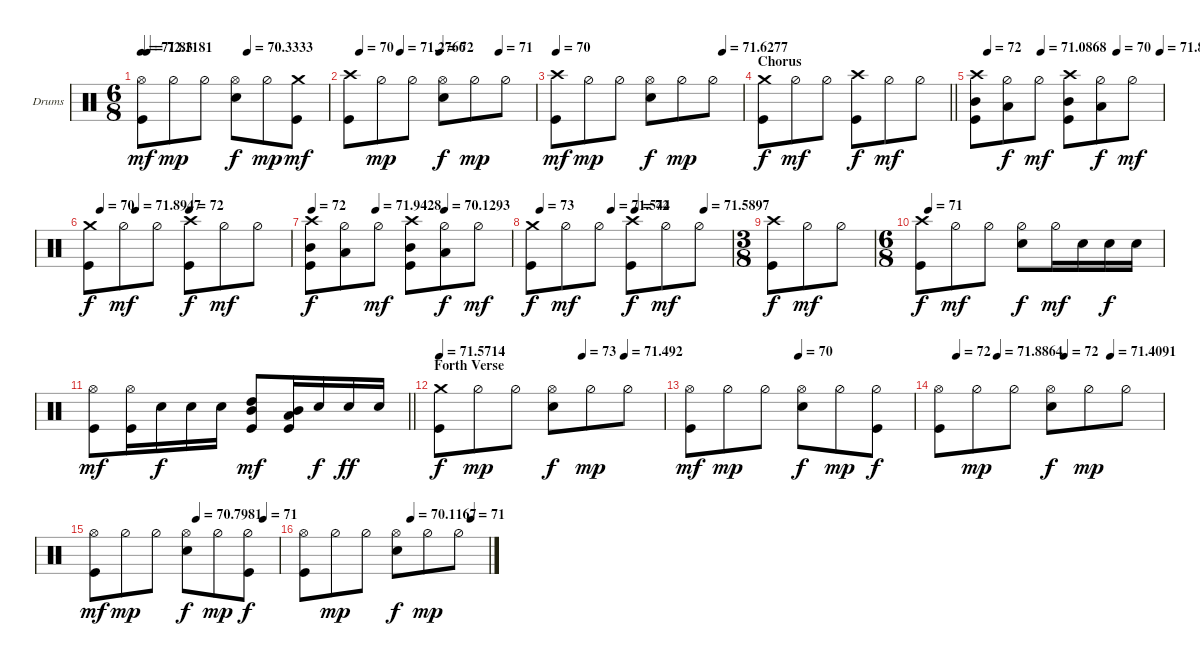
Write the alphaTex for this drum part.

\bracketExtendMode groupsimilarinstruments
\firstSystemTrackNameOrientation horizontal
\otherSystemsTrackNameOrientation horizontal
\track ("Drums" "Drums") {instrument percussion}
\staff {score}
\articulation defaults
\ts (6 8)
\tempo
71.83
\tempo (72.1181 0.03125)
\tempo (70.3333 0.56875)
\accidentals auto
\clef neutral
\ottava regular
\simile none
\ks c
("Hi-Hat (open)" "Kick (hit)").8{dy mf} "Hi-Hat (half)".8{dy mp} "Hi-Hat (half)".8 ("Hi-Hat (open)" "Snare (hit) 2").8{dy f} "Hi-Hat (half)".8{dy mp} ("Crash medium (hit)" "Kick (hit)").8{dy mf} |
\tempo (70 0.05625)
\tempo (71.2766 0.275)
\tempo (72 0.4875)
\tempo (71 0.80625)
("Crash high (hit)" "Kick (hit)").8 "Hi-Hat (half)".8{dy mp} "Hi-Hat (half)".8 ("Hi-Hat (open)" "Snare (hit) 2").8{dy f} "Hi-Hat (half)".8{dy mp} "Hi-Hat (half)".8 |
\tempo 70
\tempo (71.6277 0.89375)
("Crash high (hit)" "Kick (hit)").8{dy mf} "Hi-Hat (half)".8{dy mp} "Hi-Hat (half)".8 ("Hi-Hat (open)" "Snare (hit) 2").8{dy f} "Hi-Hat (half)".8{dy mp} "Hi-Hat (half)".8 |
\section ("" "Chorus")
\barLineRight lightlight
("Crash medium (hit)" "Kick (hit)").8{dy f} "Hi-Hat (half)".8{dy mf} "Hi-Hat (half)".8 ("Crash high (hit)" "Kick (hit)").8{dy f} "Hi-Hat (half)".8{dy mf} "Hi-Hat (half)".8 |
\tempo (72 0.0625)
\tempo (71.0868 0.35)
\tempo (70 0.75625)
\tempo (71.8615 0.9875)
("Crash high (hit)" "Mid Tom (hit)" "Kick (hit)").8 ("Hi-Hat (half)" "Low Tom (hit)").8{dy f} "Hi-Hat (half)".8{dy mf} ("Crash high (hit)" "Mid Tom (hit)" "Kick (hit)").8 ("Hi-Hat (half)" "Low Tom (hit)").8{dy f} "Hi-Hat (half)".8{dy mf} |
\tempo (70 0.05625)
\tempo (71.8947 0.23125)
\tempo (72 0.5)
("Crash medium (hit)" "Kick (hit)").8{dy f} "Hi-Hat (half)".8{dy mf} "Hi-Hat (half)".8 ("Crash high (hit)" "Kick (hit)").8{dy f} "Hi-Hat (half)".8{dy mf} "Hi-Hat (half)".8 |
\tempo (72 0.00625)
\tempo (71.9428 0.325)
\tempo (70.1293 0.66875)
("Crash high (hit)" "Mid Tom (hit)" "Kick (hit)").8{dy f} ("Hi-Hat (half)" "Low Tom (hit)").8 "Hi-Hat (half)".8{dy mf} ("Crash high (hit)" "Mid Tom (hit)" "Kick (hit)").8 ("Hi-Hat (half)" "Low Tom (hit)").8{dy f} "Hi-Hat (half)".8{dy mf} |
\tempo (73 0.04375)
\tempo (71.544 0.4)
\tempo (72 0.51875)
\tempo (71.5897 0.8625)
("Crash medium (hit)" "Kick (hit)").8{dy f} "Hi-Hat (half)".8{dy mf} "Hi-Hat (half)".8 ("Crash high (hit)" "Kick (hit)").8{dy f} "Hi-Hat (half)".8{dy mf} "Hi-Hat (half)".8 |
\ts (3 8)
\beaming (8 3)
("Crash high (hit)" "Kick (hit)").8{dy f} "Hi-Hat (half)".8{dy mf} "Hi-Hat (half)".8 |
\ts (6 8)
\beaming (8 3 3)
\tempo (71 0.03125)
("Crash high (hit)" "Kick (hit)").8{dy f} "Hi-Hat (half)".8{dy mf} "Hi-Hat (half)".8 ("Hi-Hat (half)" "Snare (hit) 2").8{dy f} "Hi-Hat (half)".16{dy mf} "Snare (hit) 2".16 "Snare (hit) 2".16{dy f} "Snare (hit) 2".16 |
\barLineRight lightlight
("Hi-Hat (open)" "Kick (hit)").8{dy mf} ("Hi-Hat (open)" "Kick (hit)").16 "Snare (hit) 2".16{dy f} "Snare (hit) 2".16 "Snare (hit) 2".16 ("High Tom (hit)" "Mid Tom (hit)" "Kick (hit)").8{dy mf} ("Mid Tom (hit)" "Low Tom (hit)" "Kick (hit)").16 "Snare (hit) 2".16{dy f} "Snare (hit) 2".16{dy ff} "Snare (hit) 2".16 |
\section ("" "Forth Verse")
\tempo
71.5714
\tempo (73 0.6375)
\tempo (71.492 0.825)
("Crash medium (hit)" "Kick (hit)").8{dy f} "Hi-Hat (half)".8{dy mp} "Hi-Hat (half)".8 ("Hi-Hat (open)" "Snare (hit) 2").8{dy f} "Hi-Hat (half)".8{dy mp} "Hi-Hat (half)".8 |
\tempo (70 0.4875)
("Hi-Hat (open)" "Kick (hit)").8{dy mf} "Hi-Hat (half)".8{dy mp} "Hi-Hat (half)".8 ("Hi-Hat (open)" "Snare (hit) 2").8{dy f} "Hi-Hat (half)".8{dy mp} ("Hi-Hat (half)" "Kick (hit)").8{dy f} |
\tempo (72 0.08125)
\tempo (71.8864 0.2625)
\tempo (72 0.5625)
\tempo (71.4091 0.76875)
("Hi-Hat (open)" "Kick (hit)").8 "Hi-Hat (half)".8{dy mp} "Hi-Hat (half)".8 ("Hi-Hat (open)" "Snare (hit) 2").8{dy f} "Hi-Hat (half)".8{dy mp} "Hi-Hat (half)".8 |
\tempo (70.7981 0.55625)
\tempo (71 0.91875)
("Hi-Hat (open)" "Kick (hit)").8{dy mf} "Hi-Hat (half)".8{dy mp} "Hi-Hat (half)".8 ("Hi-Hat (open)" "Snare (hit) 2").8{dy f} "Hi-Hat (half)".8{dy mp} ("Hi-Hat (half)" "Kick (hit)").8{dy f} |
\tempo (70.1167 0.58125)
\tempo (71 0.90625)
("Hi-Hat (open)" "Kick (hit)").8 "Hi-Hat (half)".8{dy mp} "Hi-Hat (half)".8 ("Hi-Hat (open)" "Snare (hit) 2").8{dy f} "Hi-Hat (half)".8{dy mp} "Hi-Hat (half)".8
